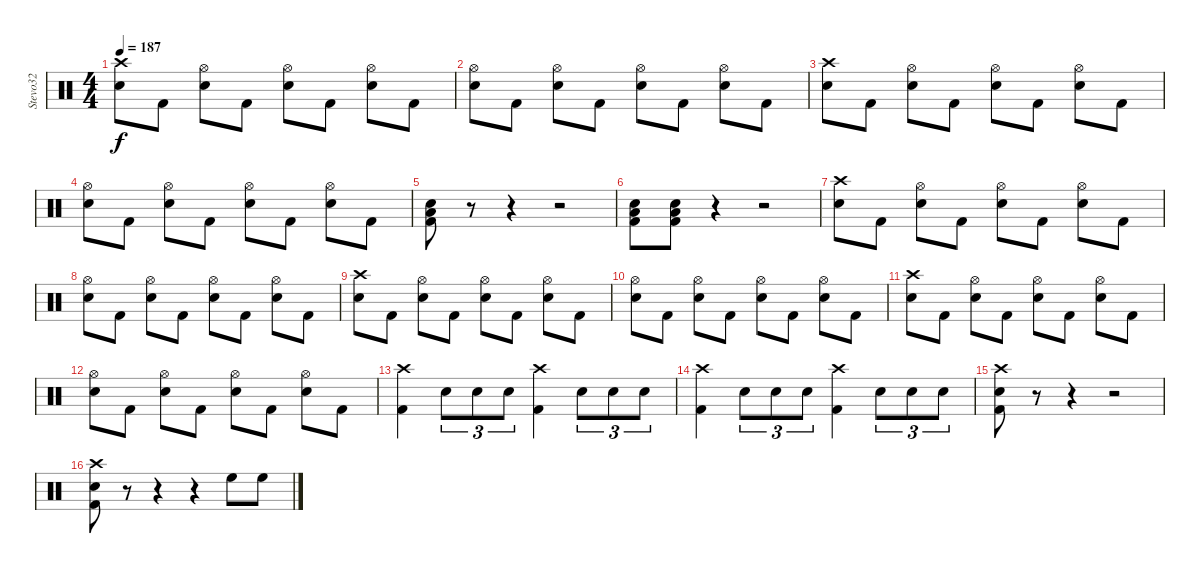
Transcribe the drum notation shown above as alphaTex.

\track ("Stevo32" "Stevo32") {instrument percussion}
\staff {score}
\articulation defaults
\ts (4 4)
\tempo 187
\clef neutral
\ks c
("Crash high (hit)" "Snare (hit) 2").8{dy f} "Kick (hit) 2".8 ("Snare (hit) 2" "Hi-Hat (open)").8 "Kick (hit) 2".8 ("Snare (hit) 2" "Hi-Hat (open)").8 "Kick (hit) 2".8 ("Snare (hit) 2" "Hi-Hat (open)").8 "Kick (hit) 2".8 |
("Snare (hit) 2" "Hi-Hat (open)").8 "Kick (hit) 2".8 ("Snare (hit) 2" "Hi-Hat (open)").8 "Kick (hit) 2".8 ("Snare (hit) 2" "Hi-Hat (open)").8 "Kick (hit) 2".8 ("Snare (hit) 2" "Hi-Hat (open)").8 "Kick (hit) 2".8 |
("Crash high (hit)" "Snare (hit) 2").8 "Kick (hit) 2".8 ("Snare (hit) 2" "Hi-Hat (open)").8 "Kick (hit) 2".8 ("Snare (hit) 2" "Hi-Hat (open)").8 "Kick (hit) 2".8 ("Snare (hit) 2" "Hi-Hat (open)").8 "Kick (hit) 2".8 |
("Snare (hit) 2" "Hi-Hat (open)").8 "Kick (hit) 2".8 ("Snare (hit) 2" "Hi-Hat (open)").8 "Kick (hit) 2".8 ("Snare (hit) 2" "Hi-Hat (open)").8 "Kick (hit) 2".8 ("Snare (hit) 2" "Hi-Hat (open)").8 "Kick (hit) 2".8 |
("Kick (hit) 2" "Low Floor Tom (hit)" "Snare (hit) 2").8 r.8 r.4 r.2 |
("Kick (hit) 2" "Low Floor Tom (hit)" "Snare (hit) 2").8 ("Kick (hit) 2" "Low Floor Tom (hit)" "Snare (hit) 2").8 r.4 r.2 |
("Crash high (hit)" "Snare (hit) 2").8 "Kick (hit) 2".8 ("Snare (hit) 2" "Hi-Hat (open)").8 "Kick (hit) 2".8 ("Snare (hit) 2" "Hi-Hat (open)").8 "Kick (hit) 2".8 ("Snare (hit) 2" "Hi-Hat (open)").8 "Kick (hit) 2".8 |
("Snare (hit) 2" "Hi-Hat (open)").8 "Kick (hit) 2".8 ("Snare (hit) 2" "Hi-Hat (open)").8 "Kick (hit) 2".8 ("Snare (hit) 2" "Hi-Hat (open)").8 "Kick (hit) 2".8 ("Snare (hit) 2" "Hi-Hat (open)").8 "Kick (hit) 2".8 |
("Crash high (hit)" "Snare (hit) 2").8 "Kick (hit) 2".8 ("Snare (hit) 2" "Hi-Hat (open)").8 "Kick (hit) 2".8 ("Snare (hit) 2" "Hi-Hat (open)").8 "Kick (hit) 2".8 ("Snare (hit) 2" "Hi-Hat (open)").8 "Kick (hit) 2".8 |
("Snare (hit) 2" "Hi-Hat (open)").8 "Kick (hit) 2".8 ("Snare (hit) 2" "Hi-Hat (open)").8 "Kick (hit) 2".8 ("Snare (hit) 2" "Hi-Hat (open)").8 "Kick (hit) 2".8 ("Snare (hit) 2" "Hi-Hat (open)").8 "Kick (hit) 2".8 |
("Crash high (hit)" "Snare (hit) 2").8 "Kick (hit) 2".8 ("Snare (hit) 2" "Hi-Hat (open)").8 "Kick (hit) 2".8 ("Snare (hit) 2" "Hi-Hat (open)").8 "Kick (hit) 2".8 ("Snare (hit) 2" "Hi-Hat (open)").8 "Kick (hit) 2".8 |
("Snare (hit) 2" "Hi-Hat (open)").8 "Kick (hit) 2".8 ("Snare (hit) 2" "Hi-Hat (open)").8 "Kick (hit) 2".8 ("Snare (hit) 2" "Hi-Hat (open)").8 "Kick (hit) 2".8 ("Snare (hit) 2" "Hi-Hat (open)").8 "Kick (hit) 2".8 |
("Kick (hit) 2" "Crash high (hit)").4 "Snare (hit) 2".8{tu (3 2)} "Snare (hit) 2".8{tu (3 2)} "Snare (hit) 2".8{tu (3 2)} ("Kick (hit) 2" "Crash high (hit)").4 "Snare (hit) 2".8{tu (3 2)} "Snare (hit) 2".8{tu (3 2)} "Snare (hit) 2".8{tu (3 2)} |
("Kick (hit) 2" "Crash high (hit)").4 "Snare (hit) 2".8{tu (3 2)} "Snare (hit) 2".8{tu (3 2)} "Snare (hit) 2".8{tu (3 2)} ("Kick (hit) 2" "Crash high (hit)").4 "Snare (hit) 2".8{tu (3 2)} "Snare (hit) 2".8{tu (3 2)} "Snare (hit) 2".8{tu (3 2)} |
("Kick (hit) 2" "Crash high (hit)" "Snare (hit) 2").8 r.8 r.4 r.2 |
("Kick (hit) 2" "Crash high (hit)" "Snare (hit) 2").8 r.8 r.4 r.4 "High Floor Tom (hit)".8 "High Floor Tom (hit)".8
